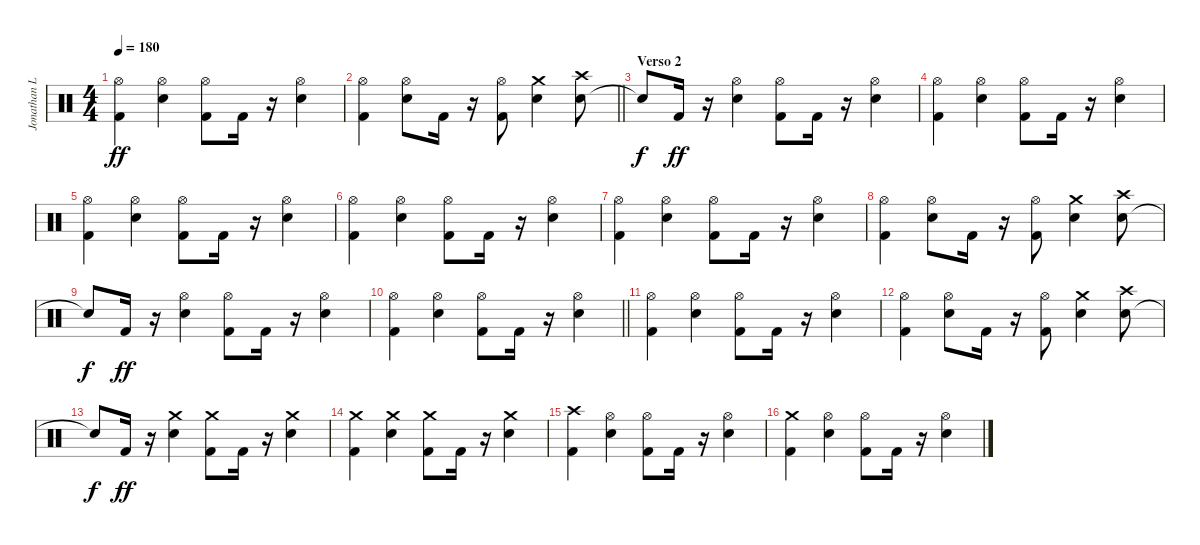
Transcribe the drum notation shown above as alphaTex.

\track ("Jonathan Lòpez" "Jonathan L") {instrument percussion}
\staff {score}
\articulation defaults
\ts (4 4)
\tempo 180
\clef neutral
\ks c
("Kick (hit) 2" "Hi-Hat (open)").4{dy ff} ("Electric Snare (hit)" "Hi-Hat (open)").4 ("Kick (hit) 2" "Hi-Hat (open)").8 "Kick (hit) 2".16 r.16 ("Electric Snare (hit)" "Hi-Hat (open)").4 |
\barLineRight lightlight
("Kick (hit) 2" "Hi-Hat (open)").4 ("Electric Snare (hit)" "Hi-Hat (open)").8 "Kick (hit) 2".16 r.16 ("Kick (hit) 2" "Hi-Hat (open)").8 ("Electric Snare (hit)" "Crash medium (hit)").4 ("Electric Snare (hit)" "Crash high (hit)").8 |
\section ("" "Verso 2")
"Snare (hit)"{t}.8{dy f} "Kick (hit) 2".16{dy ff} r.16 ("Electric Snare (hit)" "Hi-Hat (open)").4 ("Kick (hit) 2" "Hi-Hat (open)").8 "Kick (hit) 2".16 r.16 ("Electric Snare (hit)" "Hi-Hat (open)").4 |
("Kick (hit) 2" "Hi-Hat (open)").4 ("Electric Snare (hit)" "Hi-Hat (open)").4 ("Kick (hit) 2" "Hi-Hat (open)").8 "Kick (hit) 2".16 r.16 ("Electric Snare (hit)" "Hi-Hat (open)").4 |
("Kick (hit) 2" "Hi-Hat (open)").4 ("Electric Snare (hit)" "Hi-Hat (open)").4 ("Kick (hit) 2" "Hi-Hat (open)").8 "Kick (hit) 2".16 r.16 ("Electric Snare (hit)" "Hi-Hat (open)").4 |
("Hi-Hat (open)" "Kick (hit) 2").4 ("Hi-Hat (open)" "Electric Snare (hit)").4 ("Hi-Hat (open)" "Kick (hit) 2").8 "Kick (hit) 2".16 r.16 ("Hi-Hat (open)" "Electric Snare (hit)").4 |
("Kick (hit) 2" "Hi-Hat (open)").4 ("Electric Snare (hit)" "Hi-Hat (open)").4 ("Kick (hit) 2" "Hi-Hat (open)").8 "Kick (hit) 2".16 r.16 ("Electric Snare (hit)" "Hi-Hat (open)").4 |
("Kick (hit) 2" "Hi-Hat (open)").4 ("Electric Snare (hit)" "Hi-Hat (open)").8 "Kick (hit) 2".16 r.16 ("Kick (hit) 2" "Hi-Hat (open)").8 ("Electric Snare (hit)" "Crash medium (hit)").4 ("Electric Snare (hit)" "Crash high (hit)").8 |
"Snare (hit)"{t}.8{dy f} "Kick (hit) 2".16{dy ff} r.16 ("Electric Snare (hit)" "Hi-Hat (open)").4 ("Kick (hit) 2" "Hi-Hat (open)").8 "Kick (hit) 2".16 r.16 ("Electric Snare (hit)" "Hi-Hat (open)").4 |
\barLineRight lightlight
("Kick (hit) 2" "Hi-Hat (open)").4 ("Electric Snare (hit)" "Hi-Hat (open)").4 ("Kick (hit) 2" "Hi-Hat (open)").8 "Kick (hit) 2".16 r.16 ("Electric Snare (hit)" "Hi-Hat (open)").4 |
("Kick (hit) 2" "Hi-Hat (open)").4 ("Electric Snare (hit)" "Hi-Hat (open)").4 ("Kick (hit) 2" "Hi-Hat (open)").8 "Kick (hit) 2".16 r.16 ("Electric Snare (hit)" "Hi-Hat (open)").4 |
("Kick (hit) 2" "Hi-Hat (open)").4 ("Electric Snare (hit)" "Hi-Hat (open)").8 "Kick (hit) 2".16 r.16 ("Kick (hit) 2" "Hi-Hat (open)").8 ("Electric Snare (hit)" "Crash medium (hit)").4 ("Electric Snare (hit)" "Crash high (hit)").8 |
"Snare (hit)"{t}.8{dy f} "Kick (hit) 2".16{dy ff} r.16 ("Electric Snare (hit)" "Crash medium (hit)").4 ("Kick (hit) 2" "Crash medium (hit)").8 "Kick (hit) 2".16 r.16 ("Electric Snare (hit)" "Crash medium (hit)").4 |
("Kick (hit) 2" "Crash medium (hit)").4 ("Electric Snare (hit)" "Crash medium (hit)").4 ("Kick (hit) 2" "Crash medium (hit)").8 "Kick (hit) 2".16 r.16 ("Electric Snare (hit)" "Crash medium (hit)").4 |
("Kick (hit) 2" "Crash high (hit)").4 ("Electric Snare (hit)" "Hi-Hat (open)").4 ("Kick (hit) 2" "Hi-Hat (open)").8 "Kick (hit) 2".16 r.16 ("Electric Snare (hit)" "Hi-Hat (open)").4 |
("Kick (hit) 2" "Crash medium (hit)").4 ("Electric Snare (hit)" "Hi-Hat (open)").4 ("Kick (hit) 2" "Hi-Hat (open)").8 "Kick (hit) 2".16 r.16 ("Electric Snare (hit)" "Hi-Hat (open)").4
